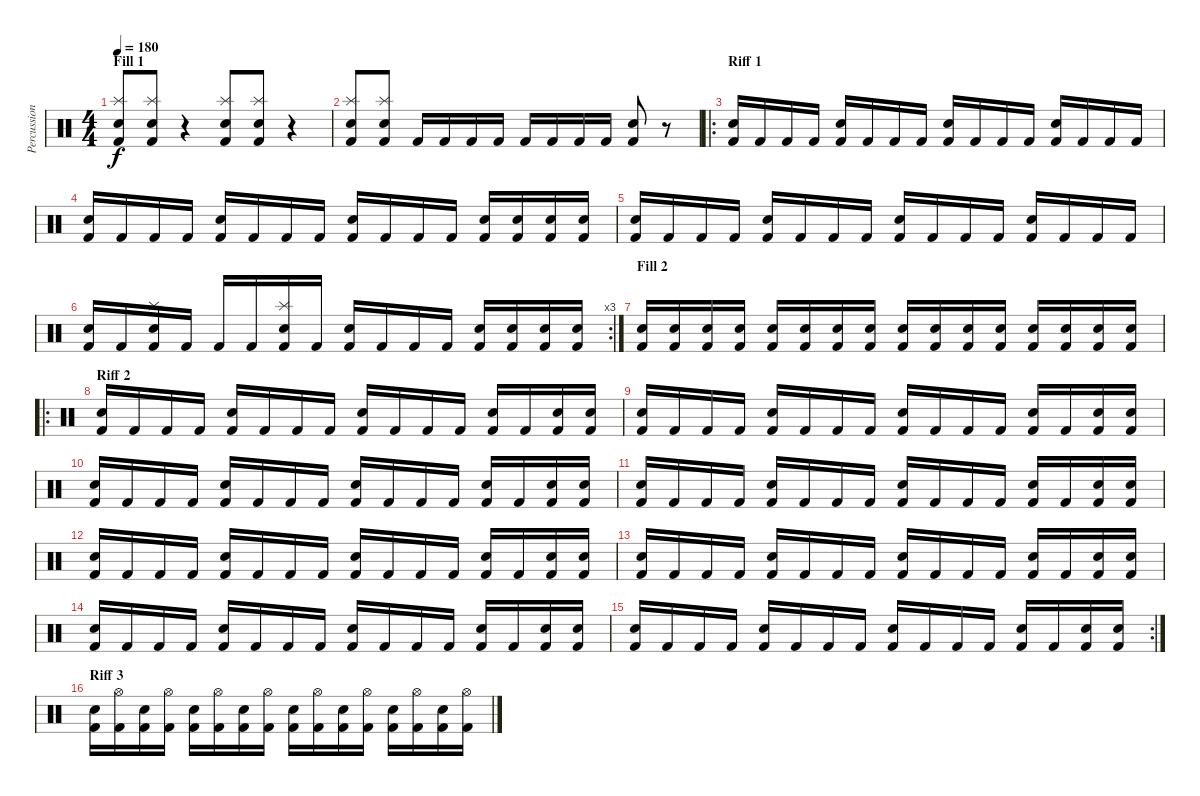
\track ("Percussion" "Percussion") {instrument percussion}
\staff {score}
\articulation defaults
\ts (4 4)
\section ("" "Fill 1")
\tempo 180
\clef neutral
\ks c
("Snare (hit) 2" "Splash (hit)" "Kick (hit) 2").8{dy f} ("Snare (hit) 2" "Splash (hit)" "Kick (hit) 2").8 r.4 ("Snare (hit) 2" "Splash (hit)" "Kick (hit) 2").8 ("Snare (hit) 2" "Splash (hit)" "Kick (hit) 2").8 r.4 |
("Snare (hit) 2" "Splash (hit)" "Kick (hit) 2").8 ("Snare (hit) 2" "Splash (hit)" "Kick (hit) 2").8 "Kick (hit) 2".16 "Kick (hit) 2".16 "Kick (hit) 2".16 "Kick (hit) 2".16 "Kick (hit) 2".16 "Kick (hit) 2".16 "Kick (hit) 2".16 "Kick (hit) 2".16 ("Snare (hit) 2" "Kick (hit) 2").8 r.8 |
\ro
\section ("" "Riff 1")
("Snare (hit) 2" "Kick (hit) 2").16 "Kick (hit) 2".16 "Kick (hit) 2".16 "Kick (hit) 2".16 ("Snare (hit) 2" "Kick (hit) 2").16 "Kick (hit) 2".16 "Kick (hit) 2".16 "Kick (hit) 2".16 ("Snare (hit) 2" "Kick (hit) 2").16 "Kick (hit) 2".16 "Kick (hit) 2".16 "Kick (hit) 2".16 ("Snare (hit) 2" "Kick (hit) 2").16 "Kick (hit) 2".16 "Kick (hit) 2".16 "Kick (hit) 2".16 |
("Snare (hit) 2" "Kick (hit) 2").16 "Kick (hit) 2".16 "Kick (hit) 2".16 "Kick (hit) 2".16 ("Snare (hit) 2" "Kick (hit) 2").16 "Kick (hit) 2".16 "Kick (hit) 2".16 "Kick (hit) 2".16 ("Snare (hit) 2" "Kick (hit) 2").16 "Kick (hit) 2".16 "Kick (hit) 2".16 "Kick (hit) 2".16 ("Snare (hit) 2" "Kick (hit) 2").16 ("Snare (hit) 2" "Kick (hit) 2").16 ("Snare (hit) 2" "Kick (hit) 2").16 ("Snare (hit) 2" "Kick (hit) 2").16 |
("Snare (hit) 2" "Kick (hit) 2").16 "Kick (hit) 2".16 "Kick (hit) 2".16 "Kick (hit) 2".16 ("Snare (hit) 2" "Kick (hit) 2").16 "Kick (hit) 2".16 "Kick (hit) 2".16 "Kick (hit) 2".16 ("Snare (hit) 2" "Kick (hit) 2").16 "Kick (hit) 2".16 "Kick (hit) 2".16 "Kick (hit) 2".16 ("Snare (hit) 2" "Kick (hit) 2").16 "Kick (hit) 2".16 "Kick (hit) 2".16 "Kick (hit) 2".16 |
\rc 3
("Snare (hit) 2" "Kick (hit) 2").16 "Kick (hit) 2".16 ("Snare (hit) 2" "Splash (hit)" "Kick (hit) 2").16 "Kick (hit) 2".16 "Kick (hit) 2".16 "Kick (hit) 2".16 ("Snare (hit) 2" "Splash (hit)" "Kick (hit) 2").16 "Kick (hit) 2".16 ("Snare (hit) 2" "Kick (hit) 2").16 "Kick (hit) 2".16 "Kick (hit) 2".16 "Kick (hit) 2".16 ("Snare (hit) 2" "Kick (hit) 2").16 ("Snare (hit) 2" "Kick (hit) 2").16 ("Snare (hit) 2" "Kick (hit) 2").16 ("Snare (hit) 2" "Kick (hit) 2").16 |
\section ("" "Fill 2")
("Snare (hit) 2" "Kick (hit) 2").16 ("Snare (hit) 2" "Kick (hit) 2").16 ("Snare (hit) 2" "Kick (hit) 2").16 ("Snare (hit) 2" "Kick (hit) 2").16 ("Snare (hit) 2" "Kick (hit) 2").16 ("Snare (hit) 2" "Kick (hit) 2").16 ("Snare (hit) 2" "Kick (hit) 2").16 ("Snare (hit) 2" "Kick (hit) 2").16 ("Snare (hit) 2" "Kick (hit) 2").16 ("Snare (hit) 2" "Kick (hit) 2").16 ("Snare (hit) 2" "Kick (hit) 2").16 ("Snare (hit) 2" "Kick (hit) 2").16 ("Snare (hit) 2" "Kick (hit) 2").16 ("Snare (hit) 2" "Kick (hit) 2").16 ("Snare (hit) 2" "Kick (hit) 2").16 ("Snare (hit) 2" "Kick (hit) 2").16 |
\ro
\section ("" "Riff 2")
("Snare (hit) 2" "Kick (hit) 2").16 "Kick (hit) 2".16 "Kick (hit) 2".16 "Kick (hit) 2".16 ("Snare (hit) 2" "Kick (hit) 2").16 "Kick (hit) 2".16 "Kick (hit) 2".16 "Kick (hit) 2".16 ("Snare (hit) 2" "Kick (hit) 2").16 "Kick (hit) 2".16 "Kick (hit) 2".16 "Kick (hit) 2".16 ("Snare (hit) 2" "Kick (hit) 2").16 "Kick (hit) 2".16 ("Snare (hit) 2" "Kick (hit) 2").16 ("Snare (hit) 2" "Kick (hit) 2").16 |
("Snare (hit) 2" "Kick (hit) 2").16 "Kick (hit) 2".16 "Kick (hit) 2".16 "Kick (hit) 2".16 ("Snare (hit) 2" "Kick (hit) 2").16 "Kick (hit) 2".16 "Kick (hit) 2".16 "Kick (hit) 2".16 ("Snare (hit) 2" "Kick (hit) 2").16 "Kick (hit) 2".16 "Kick (hit) 2".16 "Kick (hit) 2".16 ("Snare (hit) 2" "Kick (hit) 2").16 "Kick (hit) 2".16 ("Snare (hit) 2" "Kick (hit) 2").16 ("Snare (hit) 2" "Kick (hit) 2").16 |
("Snare (hit) 2" "Kick (hit) 2").16 "Kick (hit) 2".16 "Kick (hit) 2".16 "Kick (hit) 2".16 ("Snare (hit) 2" "Kick (hit) 2").16 "Kick (hit) 2".16 "Kick (hit) 2".16 "Kick (hit) 2".16 ("Snare (hit) 2" "Kick (hit) 2").16 "Kick (hit) 2".16 "Kick (hit) 2".16 "Kick (hit) 2".16 ("Snare (hit) 2" "Kick (hit) 2").16 "Kick (hit) 2".16 ("Snare (hit) 2" "Kick (hit) 2").16 ("Snare (hit) 2" "Kick (hit) 2").16 |
("Snare (hit) 2" "Kick (hit) 2").16 "Kick (hit) 2".16 "Kick (hit) 2".16 "Kick (hit) 2".16 ("Snare (hit) 2" "Kick (hit) 2").16 "Kick (hit) 2".16 "Kick (hit) 2".16 "Kick (hit) 2".16 ("Snare (hit) 2" "Kick (hit) 2").16 "Kick (hit) 2".16 "Kick (hit) 2".16 "Kick (hit) 2".16 ("Snare (hit) 2" "Kick (hit) 2").16 "Kick (hit) 2".16 ("Snare (hit) 2" "Kick (hit) 2").16 ("Snare (hit) 2" "Kick (hit) 2").16 |
("Snare (hit) 2" "Kick (hit) 2").16 "Kick (hit) 2".16 "Kick (hit) 2".16 "Kick (hit) 2".16 ("Snare (hit) 2" "Kick (hit) 2").16 "Kick (hit) 2".16 "Kick (hit) 2".16 "Kick (hit) 2".16 ("Snare (hit) 2" "Kick (hit) 2").16 "Kick (hit) 2".16 "Kick (hit) 2".16 "Kick (hit) 2".16 ("Snare (hit) 2" "Kick (hit) 2").16 "Kick (hit) 2".16 ("Snare (hit) 2" "Kick (hit) 2").16 ("Snare (hit) 2" "Kick (hit) 2").16 |
("Snare (hit) 2" "Kick (hit) 2").16 "Kick (hit) 2".16 "Kick (hit) 2".16 "Kick (hit) 2".16 ("Snare (hit) 2" "Kick (hit) 2").16 "Kick (hit) 2".16 "Kick (hit) 2".16 "Kick (hit) 2".16 ("Snare (hit) 2" "Kick (hit) 2").16 "Kick (hit) 2".16 "Kick (hit) 2".16 "Kick (hit) 2".16 ("Snare (hit) 2" "Kick (hit) 2").16 "Kick (hit) 2".16 ("Snare (hit) 2" "Kick (hit) 2").16 ("Snare (hit) 2" "Kick (hit) 2").16 |
("Snare (hit) 2" "Kick (hit) 2").16 "Kick (hit) 2".16 "Kick (hit) 2".16 "Kick (hit) 2".16 ("Snare (hit) 2" "Kick (hit) 2").16 "Kick (hit) 2".16 "Kick (hit) 2".16 "Kick (hit) 2".16 ("Snare (hit) 2" "Kick (hit) 2").16 "Kick (hit) 2".16 "Kick (hit) 2".16 "Kick (hit) 2".16 ("Snare (hit) 2" "Kick (hit) 2").16 "Kick (hit) 2".16 ("Snare (hit) 2" "Kick (hit) 2").16 ("Snare (hit) 2" "Kick (hit) 2").16 |
\rc 2
("Snare (hit) 2" "Kick (hit) 2").16 "Kick (hit) 2".16 "Kick (hit) 2".16 "Kick (hit) 2".16 ("Snare (hit) 2" "Kick (hit) 2").16 "Kick (hit) 2".16 "Kick (hit) 2".16 "Kick (hit) 2".16 ("Snare (hit) 2" "Kick (hit) 2").16 "Kick (hit) 2".16 "Kick (hit) 2".16 "Kick (hit) 2".16 ("Snare (hit) 2" "Kick (hit) 2").16 "Kick (hit) 2".16 ("Snare (hit) 2" "Kick (hit) 2").16 ("Snare (hit) 2" "Kick (hit) 2").16 |
\section ("" "Riff 3")
("Snare (hit) 2" "Kick (hit) 2").16 ("Hi-Hat (open)" "Kick (hit) 2").16 ("Snare (hit) 2" "Kick (hit) 2").16 ("Hi-Hat (open)" "Kick (hit) 2").16 ("Snare (hit) 2" "Kick (hit) 2").16 ("Hi-Hat (open)" "Kick (hit) 2").16 ("Snare (hit) 2" "Kick (hit) 2").16 ("Hi-Hat (open)" "Kick (hit) 2").16 ("Snare (hit) 2" "Kick (hit) 2").16 ("Hi-Hat (open)" "Kick (hit) 2").16 ("Snare (hit) 2" "Kick (hit) 2").16 ("Hi-Hat (open)" "Kick (hit) 2").16 ("Snare (hit) 2" "Kick (hit) 2").16 ("Hi-Hat (open)" "Kick (hit) 2").16 ("Snare (hit) 2" "Kick (hit) 2").16 ("Hi-Hat (open)" "Kick (hit) 2").16
